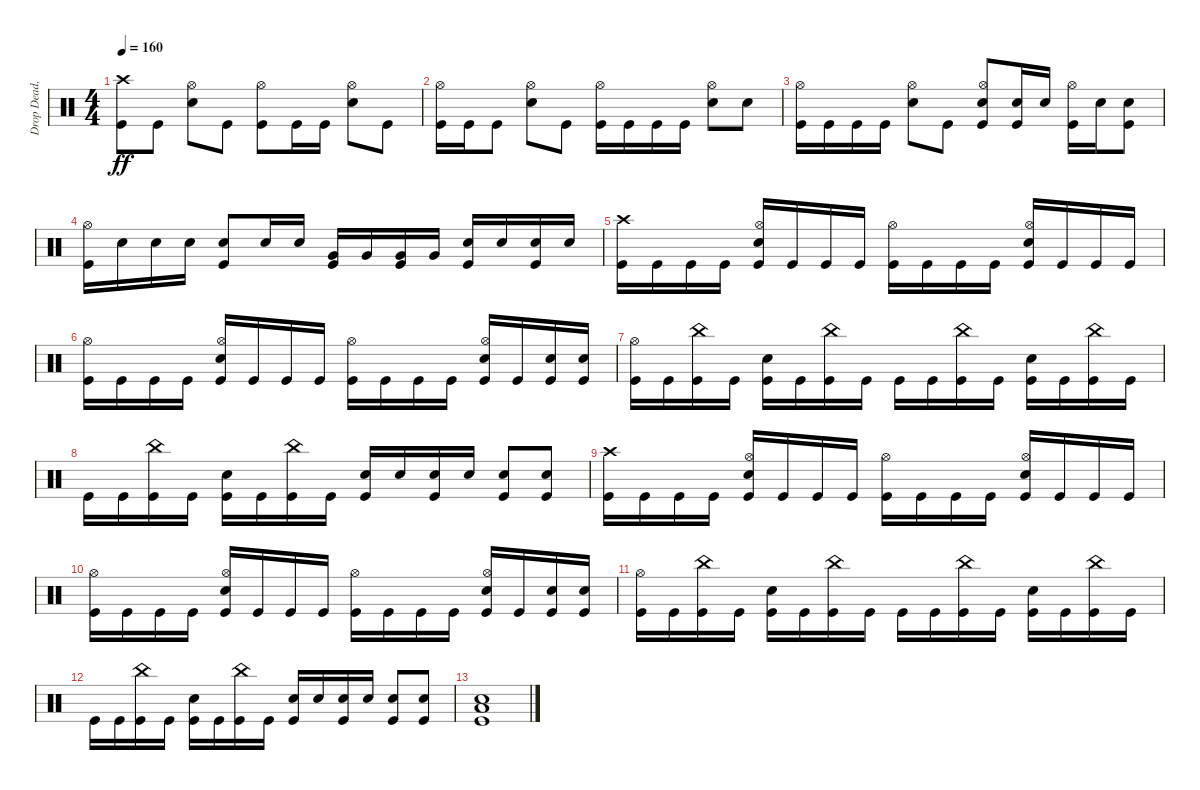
\track ("Drop Dead, Johnny" "Drop Dead,") {instrument percussion}
\staff {score}
\articulation defaults
\ts (4 4)
\tempo 160
\clef neutral
\ks c
("Crash high (hit)" "Kick (hit)").8{dy ff} "Kick (hit)".8 ("Hi-Hat (open)" "Electric Snare (hit)").8 "Kick (hit)".8 ("Hi-Hat (open)" "Kick (hit)").8 "Kick (hit)".16 "Kick (hit)".16 ("Hi-Hat (open)" "Electric Snare (hit)").8 "Kick (hit)".8 |
("Hi-Hat (open)" "Kick (hit)").16 "Kick (hit)".16 "Kick (hit)".8 ("Hi-Hat (open)" "Electric Snare (hit)").8 "Kick (hit)".8 ("Hi-Hat (open)" "Kick (hit)").16 "Kick (hit)".16 "Kick (hit)".16 "Kick (hit)".16 ("Hi-Hat (open)" "Electric Snare (hit)").8 "Electric Snare (hit)".8 |
("Hi-Hat (open)" "Kick (hit)").16 "Kick (hit)".16 "Kick (hit)".16 "Kick (hit)".16 ("Hi-Hat (open)" "Electric Snare (hit)").8 "Kick (hit)".8 ("Hi-Hat (open)" "Electric Snare (hit)" "Kick (hit)").8 ("Electric Snare (hit)" "Kick (hit)").16 "Electric Snare (hit)".16 ("Hi-Hat (open)" "Kick (hit)").16 "Electric Snare (hit)".16 ("Electric Snare (hit)" "Kick (hit)").8 |
("Hi-Hat (open)" "Kick (hit)").16 "Electric Snare (hit)".16 "Electric Snare (hit)".16 "Electric Snare (hit)".16 ("Electric Snare (hit)" "Kick (hit)").8 "Electric Snare (hit)".16 "Electric Snare (hit)".16 ("Very Low Tom (hit)" "Kick (hit)").16 "Very Low Tom (hit)".16 ("Very Low Tom (hit)" "Kick (hit)").16 "Very Low Tom (hit)".16 ("Electric Snare (hit)" "Kick (hit)").16 "Electric Snare (hit)".16 ("Electric Snare (hit)" "Kick (hit)").16 "Electric Snare (hit)".16 |
("Crash high (hit)" "Kick (hit)").16 "Kick (hit)".16 "Kick (hit)".16 "Kick (hit)".16 ("Hi-Hat (open)" "Electric Snare (hit)" "Kick (hit)").16 "Kick (hit)".16 "Kick (hit)".16 "Kick (hit)".16 ("Hi-Hat (open)" "Kick (hit)").16 "Kick (hit)".16 "Kick (hit)".16 "Kick (hit)".16 ("Hi-Hat (open)" "Electric Snare (hit)" "Kick (hit)").16 "Kick (hit)".16 "Kick (hit)".16 "Kick (hit)".16 |
("Hi-Hat (open)" "Kick (hit)").16 "Kick (hit)".16 "Kick (hit)".16 "Kick (hit)".16 ("Hi-Hat (open)" "Electric Snare (hit)" "Kick (hit)").16 "Kick (hit)".16 "Kick (hit)".16 "Kick (hit)".16 ("Hi-Hat (open)" "Kick (hit)").16 "Kick (hit)".16 "Kick (hit)".16 "Kick (hit)".16 ("Hi-Hat (open)" "Electric Snare (hit)" "Kick (hit)").16 "Kick (hit)".16 ("Electric Snare (hit)" "Kick (hit)").16 ("Electric Snare (hit)" "Kick (hit)").16 |
("Hi-Hat (open)" "Kick (hit)").16 "Kick (hit)".16 ("China (hit)" "Kick (hit)").16 "Kick (hit)".16 ("Electric Snare (hit)" "Kick (hit)").16 "Kick (hit)".16 ("China (hit)" "Kick (hit)").16 "Kick (hit)".16 "Kick (hit)".16 "Kick (hit)".16 ("China (hit)" "Kick (hit)").16 "Kick (hit)".16 ("Electric Snare (hit)" "Kick (hit)").16 "Kick (hit)".16 ("China (hit)" "Kick (hit)").16 "Kick (hit)".16 |
"Kick (hit)".16 "Kick (hit)".16 ("China (hit)" "Kick (hit)").16 "Kick (hit)".16 ("Electric Snare (hit)" "Kick (hit)").16 "Kick (hit)".16 ("China (hit)" "Kick (hit)").16 "Kick (hit)".16 ("Electric Snare (hit)" "Kick (hit)").16 "Electric Snare (hit)".16 ("Electric Snare (hit)" "Kick (hit)").16 "Electric Snare (hit)".16 ("Electric Snare (hit)" "Kick (hit)").8 ("Electric Snare (hit)" "Kick (hit)").8 |
("Crash high (hit)" "Kick (hit)").16 "Kick (hit)".16 "Kick (hit)".16 "Kick (hit)".16 ("Hi-Hat (open)" "Electric Snare (hit)" "Kick (hit)").16 "Kick (hit)".16 "Kick (hit)".16 "Kick (hit)".16 ("Hi-Hat (open)" "Kick (hit)").16 "Kick (hit)".16 "Kick (hit)".16 "Kick (hit)".16 ("Hi-Hat (open)" "Electric Snare (hit)" "Kick (hit)").16 "Kick (hit)".16 "Kick (hit)".16 "Kick (hit)".16 |
("Hi-Hat (open)" "Kick (hit)").16 "Kick (hit)".16 "Kick (hit)".16 "Kick (hit)".16 ("Hi-Hat (open)" "Electric Snare (hit)" "Kick (hit)").16 "Kick (hit)".16 "Kick (hit)".16 "Kick (hit)".16 ("Hi-Hat (open)" "Kick (hit)").16 "Kick (hit)".16 "Kick (hit)".16 "Kick (hit)".16 ("Hi-Hat (open)" "Electric Snare (hit)" "Kick (hit)").16 "Kick (hit)".16 ("Electric Snare (hit)" "Kick (hit)").16 ("Electric Snare (hit)" "Kick (hit)").16 |
("Hi-Hat (open)" "Kick (hit)").16 "Kick (hit)".16 ("China (hit)" "Kick (hit)").16 "Kick (hit)".16 ("Electric Snare (hit)" "Kick (hit)").16 "Kick (hit)".16 ("China (hit)" "Kick (hit)").16 "Kick (hit)".16 "Kick (hit)".16 "Kick (hit)".16 ("China (hit)" "Kick (hit)").16 "Kick (hit)".16 ("Electric Snare (hit)" "Kick (hit)").16 "Kick (hit)".16 ("China (hit)" "Kick (hit)").16 "Kick (hit)".16 |
"Kick (hit)".16 "Kick (hit)".16 ("China (hit)" "Kick (hit)").16 "Kick (hit)".16 ("Electric Snare (hit)" "Kick (hit)").16 "Kick (hit)".16 ("China (hit)" "Kick (hit)").16 "Kick (hit)".16 ("Electric Snare (hit)" "Kick (hit)").16 "Electric Snare (hit)".16 ("Electric Snare (hit)" "Kick (hit)").16 "Electric Snare (hit)".16 ("Electric Snare (hit)" "Kick (hit)").8 ("Electric Snare (hit)" "Kick (hit)").8 |
("Low Floor Tom (hit)" "Electric Snare (hit)" "Kick (hit)").1
